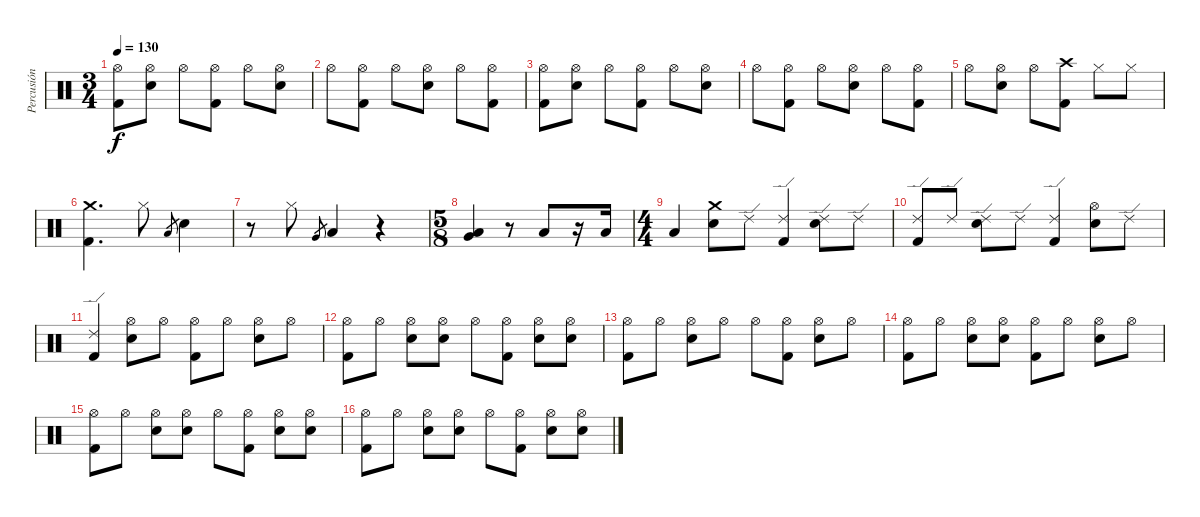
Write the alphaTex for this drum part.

\track ("Percusión" "Percusión") {instrument percussion}
\staff {score}
\articulation defaults
\ts (3 4)
\tempo 130
\clef neutral
\ks c
("Hi-Hat (open)" "Kick (hit) 2").8{dy f} ("Hi-Hat (open)" "Electric Snare (hit)").8 "Hi-Hat (open)".8 ("Hi-Hat (open)" "Kick (hit) 2").8 "Hi-Hat (open)".8 ("Hi-Hat (open)" "Electric Snare (hit)").8 |
"Hi-Hat (open)".8 ("Hi-Hat (open)" "Kick (hit) 2").8 "Hi-Hat (open)".8 ("Hi-Hat (open)" "Electric Snare (hit)").8 "Hi-Hat (open)".8 ("Hi-Hat (open)" "Kick (hit) 2").8 |
("Hi-Hat (open)" "Kick (hit) 2").8 ("Hi-Hat (open)" "Electric Snare (hit)").8 "Hi-Hat (open)".8 ("Hi-Hat (open)" "Kick (hit) 2").8 "Hi-Hat (open)".8 ("Hi-Hat (open)" "Electric Snare (hit)").8 |
"Hi-Hat (open)".8 ("Hi-Hat (open)" "Kick (hit) 2").8 "Hi-Hat (open)".8 ("Hi-Hat (open)" "Electric Snare (hit)").8 "Hi-Hat (open)".8 ("Hi-Hat (open)" "Kick (hit) 2").8 |
"Hi-Hat (open)".8 ("Hi-Hat (open)" "Electric Snare (hit)").8 "Hi-Hat (open)".8 ("Crash high (hit)" "Kick (hit) 2").8 "Hi-Hat (closed)".8 "Hi-Hat (closed)".8 |
("Crash medium (hit)" "Kick (hit) 2").4{d} "Hi-Hat (closed)".8 "Low Tom (hit)".8{gr} "Electric Snare (hit)".4 |
r.8 "Hi-Hat (closed)".8 "Very Low Tom (hit)".8{gr} "Low Tom (hit)".4 r.4 |
\ts (5 8)
("Low Tom (hit)" "Very Low Tom (hit)").4 r.8 "Low Floor Tom (hit)".8 r.16 "Low Floor Tom (hit)".16 |
\ts (4 4)
"Low Floor Tom (hit)".4 ("Crash medium (hit)" "Electric Snare (hit)").8 "Ride (edge) 2".8 ("Ride (edge) 2" "Kick (hit) 2").4 ("Ride (edge) 2" "Electric Snare (hit)").8 "Ride (edge) 2".8 |
("Ride (edge) 2" "Kick (hit) 2").8 "Ride (edge) 2".8 ("Ride (edge) 2" "Electric Snare (hit)").8 "Ride (edge) 2".8 ("Ride (edge) 2" "Kick (hit) 2").4 ("Hi-Hat (open)" "Electric Snare (hit)").8 "Ride (edge) 2".8 |
("Ride (edge) 2" "Kick (hit) 2").4 ("Hi-Hat (open)" "Electric Snare (hit)").8 "Hi-Hat (open)".8 ("Hi-Hat (open)" "Kick (hit) 2").8 "Hi-Hat (open)".8 ("Hi-Hat (open)" "Electric Snare (hit)").8 "Hi-Hat (open)".8 |
("Hi-Hat (open)" "Kick (hit) 2").8 "Hi-Hat (open)".8 ("Hi-Hat (open)" "Electric Snare (hit)").8 ("Hi-Hat (open)" "Electric Snare (hit)").8 "Hi-Hat (open)".8 ("Hi-Hat (open)" "Kick (hit) 2").8 ("Hi-Hat (open)" "Electric Snare (hit)").8 ("Hi-Hat (open)" "Electric Snare (hit)").8 |
("Hi-Hat (open)" "Kick (hit) 2").8 "Hi-Hat (open)".8 ("Hi-Hat (open)" "Electric Snare (hit)").8 "Hi-Hat (open)".8 "Hi-Hat (open)".8 ("Hi-Hat (open)" "Kick (hit) 2").8 ("Hi-Hat (open)" "Electric Snare (hit)").8 "Hi-Hat (open)".8 |
("Hi-Hat (open)" "Kick (hit) 2").8 "Hi-Hat (open)".8 ("Hi-Hat (open)" "Electric Snare (hit)").8 ("Hi-Hat (open)" "Electric Snare (hit)").8 ("Hi-Hat (open)" "Kick (hit) 2").8 "Hi-Hat (open)".8 ("Hi-Hat (open)" "Electric Snare (hit)").8 "Hi-Hat (open)".8 |
("Hi-Hat (open)" "Kick (hit) 2").8 "Hi-Hat (open)".8 ("Hi-Hat (open)" "Electric Snare (hit)").8 ("Hi-Hat (open)" "Electric Snare (hit)").8 "Hi-Hat (open)".8 ("Hi-Hat (open)" "Kick (hit) 2").8 ("Hi-Hat (open)" "Electric Snare (hit)").8 ("Hi-Hat (open)" "Electric Snare (hit)").8 |
("Hi-Hat (open)" "Kick (hit) 2").8 "Hi-Hat (open)".8 ("Hi-Hat (open)" "Electric Snare (hit)").8 ("Hi-Hat (open)" "Electric Snare (hit)").8 "Hi-Hat (open)".8 ("Hi-Hat (open)" "Kick (hit) 2").8 ("Hi-Hat (open)" "Electric Snare (hit)").8 ("Hi-Hat (open)" "Electric Snare (hit)").8
